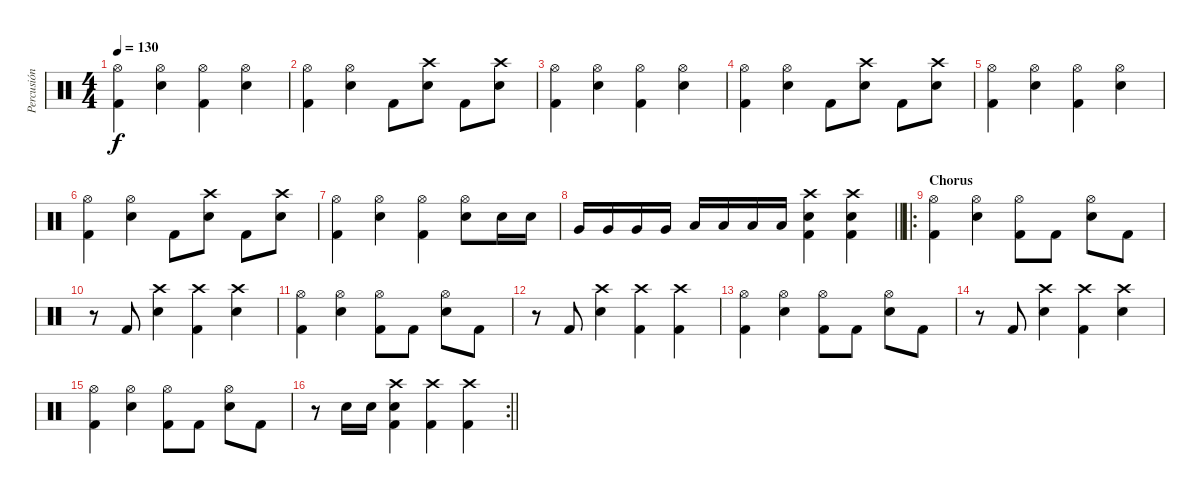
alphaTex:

\track ("Percusión" "Percusión") {instrument percussion}
\staff
\articulation defaults
\ts (4 4)
\tempo 130
\clef neutral
\ks c
("Hi-Hat (open)" "Kick (hit) 2").4{dy f} ("Hi-Hat (open)" "Snare (hit) 2").4 ("Hi-Hat (open)" "Kick (hit) 2").4 ("Hi-Hat (open)" "Snare (hit) 2").4 |
("Hi-Hat (open)" "Kick (hit) 2").4 ("Hi-Hat (open)" "Snare (hit) 2").4 "Kick (hit) 2".8 ("Crash high (hit)" "Snare (hit) 2").8 "Kick (hit) 2".8 ("Crash high (hit)" "Snare (hit) 2").8 |
("Hi-Hat (open)" "Kick (hit) 2").4 ("Hi-Hat (open)" "Snare (hit) 2").4 ("Hi-Hat (open)" "Kick (hit) 2").4 ("Hi-Hat (open)" "Snare (hit) 2").4 |
("Hi-Hat (open)" "Kick (hit) 2").4 ("Hi-Hat (open)" "Snare (hit) 2").4 "Kick (hit) 2".8 ("Crash high (hit)" "Snare (hit) 2").8 "Kick (hit) 2".8 ("Crash high (hit)" "Snare (hit) 2").8 |
("Hi-Hat (open)" "Kick (hit) 2").4 ("Hi-Hat (open)" "Snare (hit) 2").4 ("Hi-Hat (open)" "Kick (hit) 2").4 ("Hi-Hat (open)" "Snare (hit) 2").4 |
("Hi-Hat (open)" "Kick (hit) 2").4 ("Hi-Hat (open)" "Snare (hit) 2").4 "Kick (hit) 2".8 ("Crash high (hit)" "Snare (hit) 2").8 "Kick (hit) 2".8 ("Crash high (hit)" "Snare (hit) 2").8 |
("Hi-Hat (open)" "Kick (hit) 2").4 ("Hi-Hat (open)" "Snare (hit) 2").4 ("Hi-Hat (open)" "Kick (hit) 2").4 ("Hi-Hat (open)" "Snare (hit) 2").8 "Snare (hit) 2".16 "Snare (hit) 2".16 |
\barLineRight lightlight "Very Low Tom (hit)".16 "Very Low Tom (hit)".16 "Very Low Tom (hit)".16 "Very Low Tom (hit)".16 "Low Floor Tom (hit)".16 "Low Floor Tom (hit)".16 "Low Floor Tom (hit)".16 "Low Floor Tom (hit)".16
("Crash high (hit)" "Snare (hit) 2" "Kick (hit) 2").4 ("Crash high (hit)" "Snare (hit) 2" "Kick (hit) 2").4 |
\ro
\section ("" "Chorus")
("Hi-Hat (open)" "Kick (hit) 2").4 ("Hi-Hat (open)" "Snare (hit) 2").4 ("Hi-Hat (open)" "Kick (hit) 2").8 "Kick (hit) 2".8 ("Hi-Hat (open)" "Snare (hit) 2").8 "Kick (hit) 2".8 |
r.8 "Kick (hit) 2".8 ("Crash high (hit)" "Snare (hit) 2").4 ("Crash high (hit)" "Kick (hit) 2").4 ("Crash high (hit)" "Snare (hit) 2").4 |
("Hi-Hat (open)" "Kick (hit) 2").4 ("Hi-Hat (open)" "Snare (hit) 2").4 ("Hi-Hat (open)" "Kick (hit) 2").8 "Kick (hit) 2".8 ("Hi-Hat (open)" "Snare (hit) 2").8 "Kick (hit) 2".8 |
r.8 "Kick (hit) 2".8 ("Crash high (hit)" "Snare (hit) 2").4 ("Crash high (hit)" "Kick (hit) 2").4 ("Crash high (hit)" "Kick (hit) 2").4 |
("Hi-Hat (open)" "Kick (hit) 2").4 ("Hi-Hat (open)" "Snare (hit) 2").4 ("Hi-Hat (open)" "Kick (hit) 2").8 "Kick (hit) 2".8 ("Hi-Hat (open)" "Snare (hit) 2").8 "Kick (hit) 2".8 |
r.8 "Kick (hit) 2".8 ("Crash high (hit)" "Snare (hit) 2").4 ("Crash high (hit)" "Kick (hit) 2").4 ("Crash high (hit)" "Snare (hit) 2").4 |
("Hi-Hat (open)" "Kick (hit) 2").4 ("Hi-Hat (open)" "Snare (hit) 2").4 ("Hi-Hat (open)" "Kick (hit) 2").8 "Kick (hit) 2".8 ("Hi-Hat (open)" "Snare (hit) 2").8 "Kick (hit) 2".8 |
\rc 2
\barLineRight lightlight
r.8 "Snare (hit) 2".16 "Snare (hit) 2".16 ("Crash high (hit)" "Snare (hit) 2" "Kick (hit) 2").4 ("Crash high (hit)" "Kick (hit) 2").4 ("Crash high (hit)" "Kick (hit) 2").4
